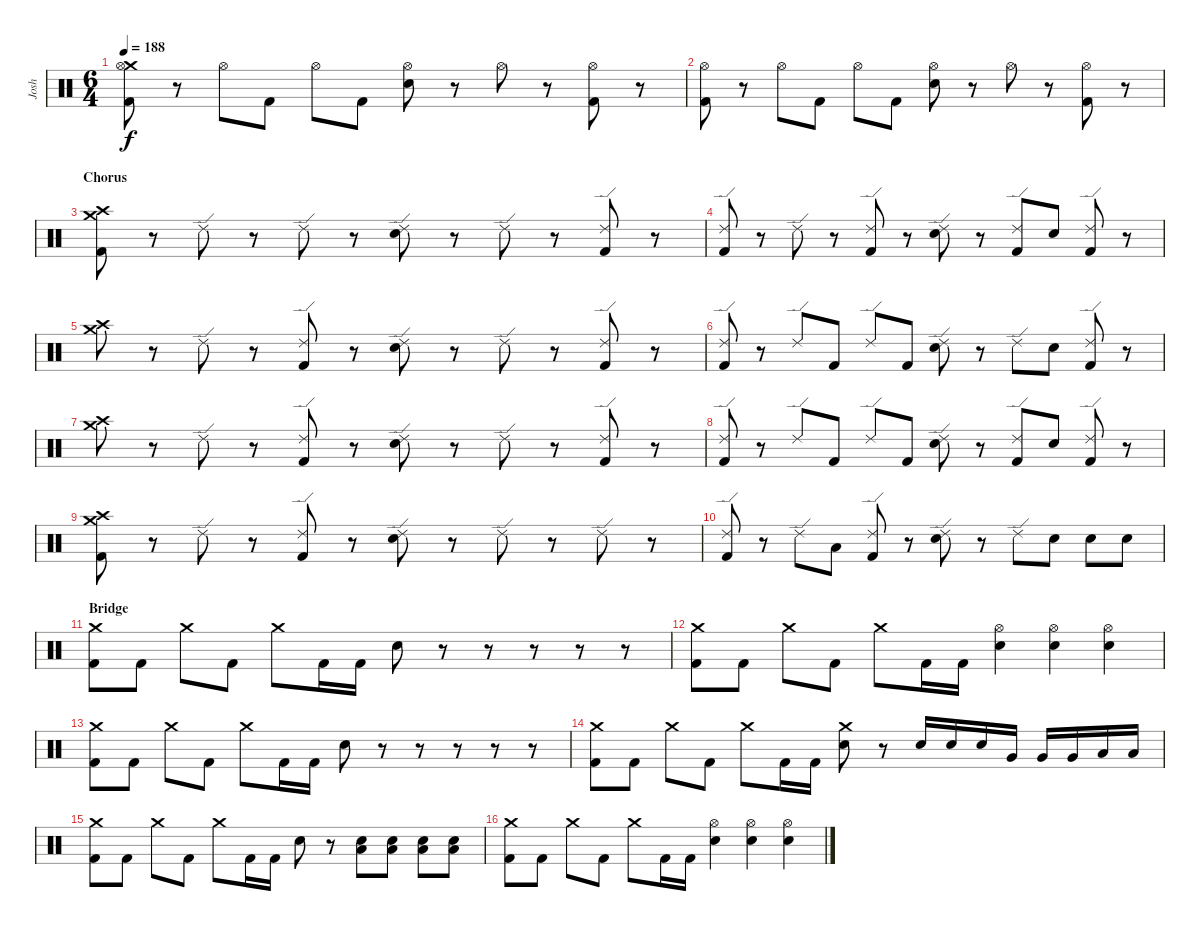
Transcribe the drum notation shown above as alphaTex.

\track ("Josh" "Josh") {instrument percussion}
\staff {score}
\articulation defaults
\ts (6 4)
\tempo 188
\clef neutral
\ks c
("Crash medium (hit)" "Hi-Hat (open)" "Kick (hit) 2").8{dy f} r.8 "Hi-Hat (open)".8 "Kick (hit) 2".8 "Hi-Hat (open)".8 "Kick (hit) 2".8 ("Hi-Hat (open)" "Electric Snare (hit)").8 r.8 "Hi-Hat (open)".8 r.8 ("Hi-Hat (open)" "Kick (hit) 2").8 r.8 |
("Hi-Hat (open)" "Kick (hit) 2").8 r.8 "Hi-Hat (open)".8 "Kick (hit) 2".8 "Hi-Hat (open)".8 "Kick (hit) 2".8 ("Hi-Hat (open)" "Electric Snare (hit)").8 r.8 "Hi-Hat (open)".8 r.8 ("Hi-Hat (open)" "Kick (hit) 2").8 r.8 |
\section ("" "Chorus")
("Crash medium (hit)" "Crash high (hit)" "Kick (hit) 2").8 r.8 "Ride (edge) 2".8 r.8 "Ride (edge) 2".8 r.8 ("Ride (edge) 2" "Electric Snare (hit)").8 r.8 "Ride (edge) 2".8 r.8 ("Ride (edge) 2" "Kick (hit) 2").8 r.8 |
("Ride (edge) 2" "Kick (hit) 2").8 r.8 "Ride (edge) 2".8 r.8 ("Ride (edge) 2" "Kick (hit) 2").8 r.8 ("Ride (edge) 2" "Electric Snare (hit)").8 r.8 ("Ride (edge) 2" "Kick (hit) 2").8 "Electric Snare (hit)".8 ("Ride (edge) 2" "Kick (hit) 2").8 r.8 |
("Crash high (hit)" "Crash medium (hit)").8 r.8 "Ride (edge) 2".8 r.8 ("Ride (edge) 2" "Kick (hit) 2").8 r.8 ("Ride (edge) 2" "Electric Snare (hit)").8 r.8 "Ride (edge) 2".8 r.8 ("Ride (edge) 2" "Kick (hit) 2").8 r.8 |
("Ride (edge) 2" "Kick (hit) 2").8 r.8 "Ride (edge) 2".8 "Kick (hit) 2".8 "Ride (edge) 2".8 "Kick (hit) 2".8 ("Ride (edge) 2" "Electric Snare (hit)").8 r.8 "Ride (edge) 2".8 "Electric Snare (hit)".8 ("Ride (edge) 2" "Kick (hit) 2").8 r.8 |
("Crash medium (hit)" "Crash high (hit)").8 r.8 "Ride (edge) 2".8 r.8 ("Ride (edge) 2" "Kick (hit) 2").8 r.8 ("Ride (edge) 2" "Electric Snare (hit)").8 r.8 "Ride (edge) 2".8 r.8 ("Ride (edge) 2" "Kick (hit) 2").8 r.8 |
("Ride (edge) 2" "Kick (hit) 2").8 r.8 "Ride (edge) 2".8 "Kick (hit) 2".8 "Ride (edge) 2".8 "Kick (hit) 2".8 ("Ride (edge) 2" "Electric Snare (hit)").8 r.8 ("Ride (edge) 2" "Kick (hit) 2").8 "Electric Snare (hit)".8 ("Ride (edge) 2" "Kick (hit) 2").8 r.8 |
("Crash high (hit)" "Crash medium (hit)" "Kick (hit) 2").8 r.8 "Ride (edge) 2".8 r.8 ("Ride (edge) 2" "Kick (hit) 2").8 r.8 ("Ride (edge) 2" "Electric Snare (hit)").8 r.8 "Ride (edge) 2".8 r.8 "Ride (edge) 2".8 r.8 |
("Ride (edge) 2" "Kick (hit) 2").8 r.8 "Ride (edge) 2".8 "Low Tom (hit)".8 ("Ride (edge) 2" "Kick (hit) 2").8 r.8 ("Ride (edge) 2" "Electric Snare (hit)").8 r.8 "Ride (edge) 2".8 "Electric Snare (hit)".8 "Electric Snare (hit)".8 "Electric Snare (hit)".8 |
\section ("" "Bridge")
("Crash medium (hit)" "Kick (hit) 2").8 "Kick (hit) 2".8 "Crash medium (hit)".8 "Kick (hit) 2".8 "Crash medium (hit)".8 "Kick (hit) 2".16 "Kick (hit) 2".16 "Electric Snare (hit)".8 r.8 r.8 r.8 r.8 r.8 |
("Crash medium (hit)" "Kick (hit) 2").8 "Kick (hit) 2".8 "Crash medium (hit)".8 "Kick (hit) 2".8 "Crash medium (hit)".8 "Kick (hit) 2".16 "Kick (hit) 2".16 ("Hi-Hat (open)" "Electric Snare (hit)").4 ("Hi-Hat (open)" "Electric Snare (hit)").4 ("Hi-Hat (open)" "Electric Snare (hit)").4 |
("Crash medium (hit)" "Kick (hit) 2").8 "Kick (hit) 2".8 "Crash medium (hit)".8 "Kick (hit) 2".8 "Crash medium (hit)".8 "Kick (hit) 2".16 "Kick (hit) 2".16 "Electric Snare (hit)".8 r.8 r.8 r.8 r.8 r.8 |
("Crash medium (hit)" "Kick (hit) 2").8 "Kick (hit) 2".8 "Crash medium (hit)".8 "Kick (hit) 2".8 "Crash medium (hit)".8 "Kick (hit) 2".16 "Kick (hit) 2".16 ("Crash medium (hit)" "Electric Snare (hit)").8 r.8 "Electric Snare (hit)".16 "Electric Snare (hit)".16 "Electric Snare (hit)".16 "Very Low Tom (hit)".16 "Very Low Tom (hit)".16 "Very Low Tom (hit)".16 "Low Floor Tom (hit)".16 "Low Floor Tom (hit)".16 |
("Crash medium (hit)" "Kick (hit) 2").8 "Kick (hit) 2".8 "Crash medium (hit)".8 "Kick (hit) 2".8 "Crash medium (hit)".8 "Kick (hit) 2".16 "Kick (hit) 2".16 "Electric Snare (hit)".8 r.8 ("Electric Snare (hit)" "Low Floor Tom (hit)").8 ("Electric Snare (hit)" "Low Floor Tom (hit)").8 ("Electric Snare (hit)" "Low Floor Tom (hit)").8 ("Electric Snare (hit)" "Low Floor Tom (hit)").8 |
("Crash medium (hit)" "Kick (hit) 2").8 "Kick (hit) 2".8 "Crash medium (hit)".8 "Kick (hit) 2".8 "Crash medium (hit)".8 "Kick (hit) 2".16 "Kick (hit) 2".16 ("Hi-Hat (open)" "Electric Snare (hit)").4 ("Hi-Hat (open)" "Electric Snare (hit)").4 ("Hi-Hat (open)" "Electric Snare (hit)").4
